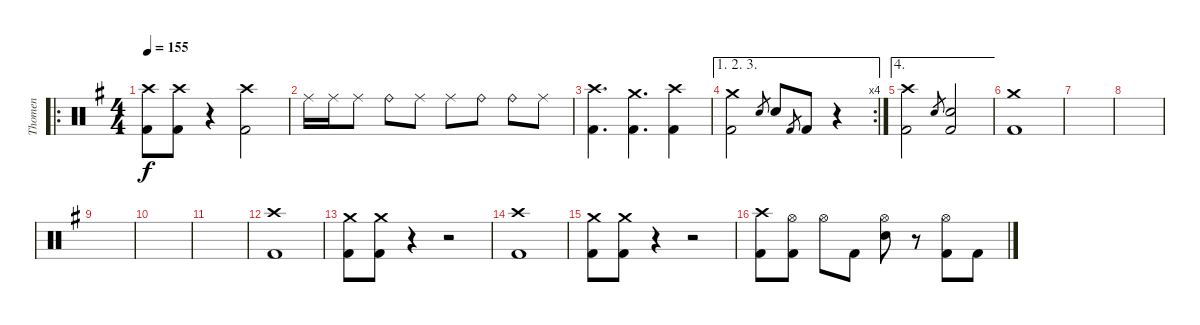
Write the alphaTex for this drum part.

\track ("Thomen" "Thomen") {instrument percussion}
\staff {score}
\articulation defaults
\ro
\ts (4 4)
\tempo 155
\clef neutral
\ks g
("Crash high (hit)" "Kick (hit) 2").8{dy f} ("Crash high (hit)" "Kick (hit) 2").8 r.4 ("Crash high (hit)" "Kick (hit) 2").2 |
"Ride (middle)".16 "Ride (middle)".16 "Ride (middle)".8 "Ride (bell)".8 "Ride (middle)".8 "Ride (middle)".8 "Ride (bell)".8 "Ride (bell)".8 "Ride (middle)".8 |
("Crash high (hit)" "Kick (hit) 2").4{d} ("Crash medium (hit)" "Kick (hit) 2").4{d} ("Crash high (hit)" "Kick (hit) 2").4 |
\ae (1 2 3)
\rc 4
("Crash medium (hit)" "Kick (hit) 2").2 "Electric Snare (hit)".8{gr} "Electric Snare (hit)".8 "Kick (hit) 2".8{gr} "Kick (hit) 2".8 r.4 |
\ae 4
("Crash high (hit)" "Kick (hit) 2").2 "Electric Snare (hit)".8{gr} ("Electric Snare (hit)" "Kick (hit) 2").2 |
("Crash medium (hit)" "Kick (hit) 2").1 |
|
|
|
|
|
("Crash high (hit)" "Kick (hit) 2").1 |
("Crash medium (hit)" "Kick (hit) 2").8 ("Crash medium (hit)" "Kick (hit) 2").8 r.4 r.2 |
("Crash high (hit)" "Kick (hit) 2").1 |
("Crash medium (hit)" "Kick (hit) 2").8 ("Crash medium (hit)" "Kick (hit) 2").8 r.4 r.2 |
("Crash high (hit)" "Kick (hit) 2").8 ("Hi-Hat (open)" "Kick (hit) 2").8 "Hi-Hat (open)".8 "Kick (hit) 2".8 ("Hi-Hat (open)" "Electric Snare (hit)").8 r.8 ("Hi-Hat (open)" "Kick (hit) 2").8 "Kick (hit) 2".8
